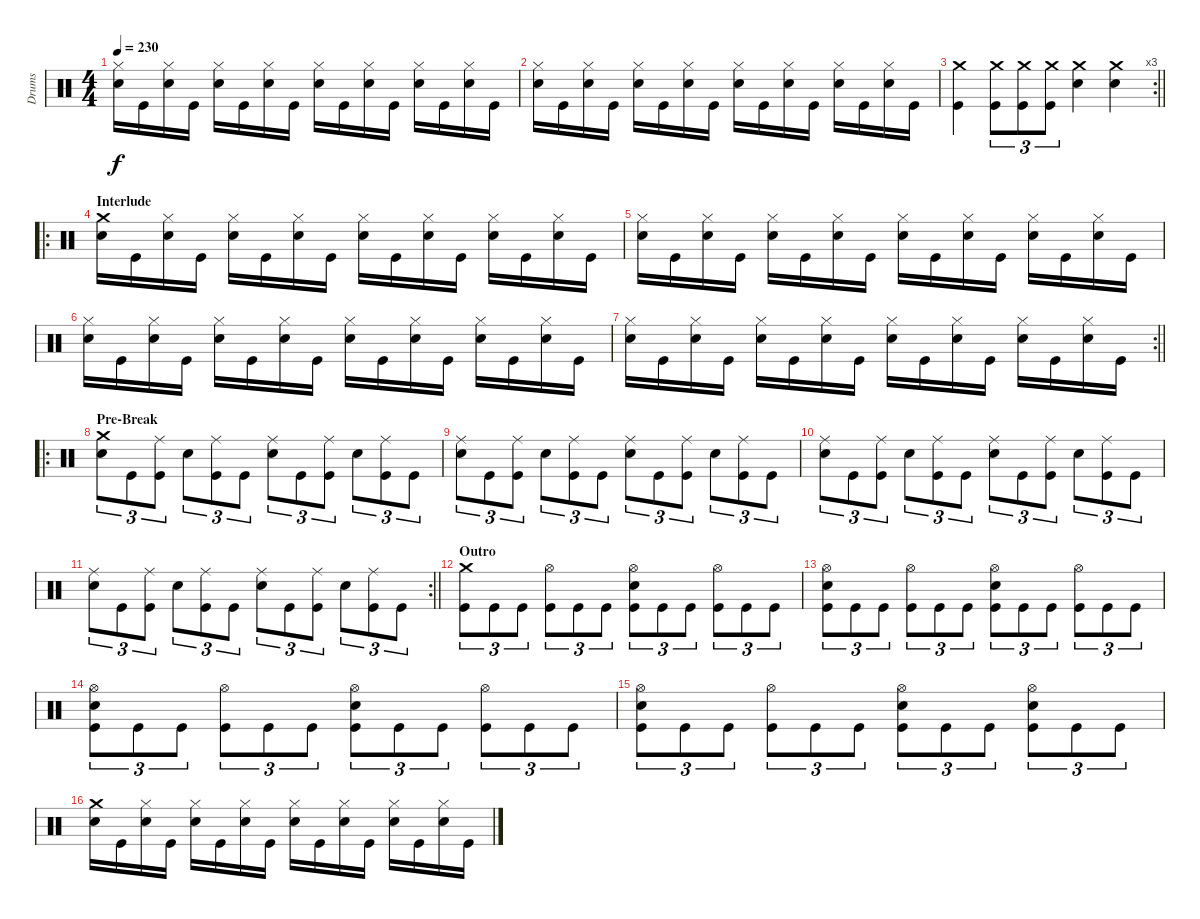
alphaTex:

\track ("Drums" "Drums") {instrument percussion}
\staff {score}
\articulation defaults
\ts (4 4)
\tempo 230
\clef neutral
\ks c
("Hi-Hat (closed)" "Electric Snare (hit)").16{dy f} "Kick (hit)".16 ("Hi-Hat (closed)" "Electric Snare (hit)").16 "Kick (hit)".16 ("Hi-Hat (closed)" "Electric Snare (hit)").16 "Kick (hit)".16 ("Hi-Hat (closed)" "Electric Snare (hit)").16 "Kick (hit)".16 ("Hi-Hat (closed)" "Electric Snare (hit)").16 "Kick (hit)".16 ("Hi-Hat (closed)" "Electric Snare (hit)").16 "Kick (hit)".16 ("Hi-Hat (closed)" "Electric Snare (hit)").16 "Kick (hit)".16 ("Hi-Hat (closed)" "Electric Snare (hit)").16 "Kick (hit)".16 |
("Hi-Hat (closed)" "Electric Snare (hit)").16 "Kick (hit)".16 ("Hi-Hat (closed)" "Electric Snare (hit)").16 "Kick (hit)".16 ("Hi-Hat (closed)" "Electric Snare (hit)").16 "Kick (hit)".16 ("Hi-Hat (closed)" "Electric Snare (hit)").16 "Kick (hit)".16 ("Hi-Hat (closed)" "Electric Snare (hit)").16 "Kick (hit)".16 ("Hi-Hat (closed)" "Electric Snare (hit)").16 "Kick (hit)".16 ("Hi-Hat (closed)" "Electric Snare (hit)").16 "Kick (hit)".16 ("Hi-Hat (closed)" "Electric Snare (hit)").16 "Kick (hit)".16 |
\rc 3
\barLineRight lightlight
("Crash medium (hit)" "Kick (hit)").4 ("Crash medium (hit)" "Kick (hit)").8{tu (3 2)} ("Crash medium (hit)" "Kick (hit)").8{tu (3 2)} ("Crash medium (hit)" "Kick (hit)").8{tu (3 2)} ("Crash medium (hit)" "Electric Snare (hit)").4 ("Crash medium (hit)" "Electric Snare (hit)").4 |
\ro
\section ("" "Interlude")
("Crash medium (hit)" "Electric Snare (hit)").16 "Kick (hit)".16 ("Hi-Hat (closed)" "Electric Snare (hit)").16 "Kick (hit)".16 ("Hi-Hat (closed)" "Electric Snare (hit)").16 "Kick (hit)".16 ("Hi-Hat (closed)" "Electric Snare (hit)").16 "Kick (hit)".16 ("Hi-Hat (closed)" "Electric Snare (hit)").16 "Kick (hit)".16 ("Hi-Hat (closed)" "Electric Snare (hit)").16 "Kick (hit)".16 ("Hi-Hat (closed)" "Electric Snare (hit)").16 "Kick (hit)".16 ("Hi-Hat (closed)" "Electric Snare (hit)").16 "Kick (hit)".16 |
("Hi-Hat (closed)" "Electric Snare (hit)").16 "Kick (hit)".16 ("Hi-Hat (closed)" "Electric Snare (hit)").16 "Kick (hit)".16 ("Hi-Hat (closed)" "Electric Snare (hit)").16 "Kick (hit)".16 ("Hi-Hat (closed)" "Electric Snare (hit)").16 "Kick (hit)".16 ("Hi-Hat (closed)" "Electric Snare (hit)").16 "Kick (hit)".16 ("Hi-Hat (closed)" "Electric Snare (hit)").16 "Kick (hit)".16 ("Hi-Hat (closed)" "Electric Snare (hit)").16 "Kick (hit)".16 ("Hi-Hat (closed)" "Electric Snare (hit)").16 "Kick (hit)".16 |
("Hi-Hat (closed)" "Electric Snare (hit)").16 "Kick (hit)".16 ("Hi-Hat (closed)" "Electric Snare (hit)").16 "Kick (hit)".16 ("Hi-Hat (closed)" "Electric Snare (hit)").16 "Kick (hit)".16 ("Hi-Hat (closed)" "Electric Snare (hit)").16 "Kick (hit)".16 ("Hi-Hat (closed)" "Electric Snare (hit)").16 "Kick (hit)".16 ("Hi-Hat (closed)" "Electric Snare (hit)").16 "Kick (hit)".16 ("Hi-Hat (closed)" "Electric Snare (hit)").16 "Kick (hit)".16 ("Hi-Hat (closed)" "Electric Snare (hit)").16 "Kick (hit)".16 |
\rc 2
\barLineRight lightlight
("Hi-Hat (closed)" "Electric Snare (hit)").16 "Kick (hit)".16 ("Hi-Hat (closed)" "Electric Snare (hit)").16 "Kick (hit)".16 ("Hi-Hat (closed)" "Electric Snare (hit)").16 "Kick (hit)".16 ("Hi-Hat (closed)" "Electric Snare (hit)").16 "Kick (hit)".16 ("Hi-Hat (closed)" "Electric Snare (hit)").16 "Kick (hit)".16 ("Hi-Hat (closed)" "Electric Snare (hit)").16 "Kick (hit)".16 ("Hi-Hat (closed)" "Electric Snare (hit)").16 "Kick (hit)".16 ("Hi-Hat (closed)" "Electric Snare (hit)").16 "Kick (hit)".16 |
\ro
\section ("" "Pre-Break")
("Crash medium (hit)" "Electric Snare (hit)").8{tu (3 2)} "Kick (hit)".8{tu (3 2)} ("Ride (middle)" "Kick (hit)").8{tu (3 2)} "Electric Snare (hit)".8{tu (3 2)} ("Ride (middle)" "Kick (hit)").8{tu (3 2)} "Kick (hit)".8{tu (3 2)} ("Ride (middle)" "Electric Snare (hit)").8{tu (3 2)} "Kick (hit)".8{tu (3 2)} ("Ride (middle)" "Kick (hit)").8{tu (3 2)} "Electric Snare (hit)".8{tu (3 2)} ("Ride (middle)" "Kick (hit)").8{tu (3 2)} "Kick (hit)".8{tu (3 2)} |
("Ride (middle)" "Electric Snare (hit)").8{tu (3 2)} "Kick (hit)".8{tu (3 2)} ("Ride (middle)" "Kick (hit)").8{tu (3 2)} "Electric Snare (hit)".8{tu (3 2)} ("Ride (middle)" "Kick (hit)").8{tu (3 2)} "Kick (hit)".8{tu (3 2)} ("Ride (middle)" "Electric Snare (hit)").8{tu (3 2)} "Kick (hit)".8{tu (3 2)} ("Ride (middle)" "Kick (hit)").8{tu (3 2)} "Electric Snare (hit)".8{tu (3 2)} ("Ride (middle)" "Kick (hit)").8{tu (3 2)} "Kick (hit)".8{tu (3 2)} |
("Ride (middle)" "Electric Snare (hit)").8{tu (3 2)} "Kick (hit)".8{tu (3 2)} ("Ride (middle)" "Kick (hit)").8{tu (3 2)} "Electric Snare (hit)".8{tu (3 2)} ("Ride (middle)" "Kick (hit)").8{tu (3 2)} "Kick (hit)".8{tu (3 2)} ("Ride (middle)" "Electric Snare (hit)").8{tu (3 2)} "Kick (hit)".8{tu (3 2)} ("Ride (middle)" "Kick (hit)").8{tu (3 2)} "Electric Snare (hit)".8{tu (3 2)} ("Ride (middle)" "Kick (hit)").8{tu (3 2)} "Kick (hit)".8{tu (3 2)} |
\rc 2
\barLineRight lightlight
("Ride (middle)" "Electric Snare (hit)").8{tu (3 2)} "Kick (hit)".8{tu (3 2)} ("Ride (middle)" "Kick (hit)").8{tu (3 2)} "Electric Snare (hit)".8{tu (3 2)} ("Ride (middle)" "Kick (hit)").8{tu (3 2)} "Kick (hit)".8{tu (3 2)} ("Ride (middle)" "Electric Snare (hit)").8{tu (3 2)} "Kick (hit)".8{tu (3 2)} ("Ride (middle)" "Kick (hit)").8{tu (3 2)} "Electric Snare (hit)".8{tu (3 2)} ("Ride (middle)" "Kick (hit)").8{tu (3 2)} "Kick (hit)".8{tu (3 2)} |
\section ("" "Outro")
("Crash medium (hit)" "Kick (hit)").8{tu (3 2)} "Kick (hit)".8{tu (3 2)} "Kick (hit)".8{tu (3 2)} ("Hi-Hat (open)" "Kick (hit)").8{tu (3 2)} "Kick (hit)".8{tu (3 2)} "Kick (hit)".8{tu (3 2)} ("Hi-Hat (open)" "Electric Snare (hit)" "Kick (hit)").8{tu (3 2)} "Kick (hit)".8{tu (3 2)} "Kick (hit)".8{tu (3 2)} ("Hi-Hat (open)" "Kick (hit)").8{tu (3 2)} "Kick (hit)".8{tu (3 2)} "Kick (hit)".8{tu (3 2)} |
("Hi-Hat (open)" "Electric Snare (hit)" "Kick (hit)").8{tu (3 2)} "Kick (hit)".8{tu (3 2)} "Kick (hit)".8{tu (3 2)} ("Hi-Hat (open)" "Kick (hit)").8{tu (3 2)} "Kick (hit)".8{tu (3 2)} "Kick (hit)".8{tu (3 2)} ("Hi-Hat (open)" "Electric Snare (hit)" "Kick (hit)").8{tu (3 2)} "Kick (hit)".8{tu (3 2)} "Kick (hit)".8{tu (3 2)} ("Hi-Hat (open)" "Kick (hit)").8{tu (3 2)} "Kick (hit)".8{tu (3 2)} "Kick (hit)".8{tu (3 2)} |
("Hi-Hat (open)" "Electric Snare (hit)" "Kick (hit)").8{tu (3 2)} "Kick (hit)".8{tu (3 2)} "Kick (hit)".8{tu (3 2)} ("Hi-Hat (open)" "Kick (hit)").8{tu (3 2)} "Kick (hit)".8{tu (3 2)} "Kick (hit)".8{tu (3 2)} ("Hi-Hat (open)" "Electric Snare (hit)" "Kick (hit)").8{tu (3 2)} "Kick (hit)".8{tu (3 2)} "Kick (hit)".8{tu (3 2)} ("Hi-Hat (open)" "Kick (hit)").8{tu (3 2)} "Kick (hit)".8{tu (3 2)} "Kick (hit)".8{tu (3 2)} |
("Hi-Hat (open)" "Electric Snare (hit)" "Kick (hit)").8{tu (3 2)} "Kick (hit)".8{tu (3 2)} "Kick (hit)".8{tu (3 2)} ("Hi-Hat (open)" "Kick (hit)").8{tu (3 2)} "Kick (hit)".8{tu (3 2)} "Kick (hit)".8{tu (3 2)} ("Hi-Hat (open)" "Electric Snare (hit)" "Kick (hit)").8{tu (3 2)} "Kick (hit)".8{tu (3 2)} "Kick (hit)".8{tu (3 2)} ("Hi-Hat (open)" "Electric Snare (hit)" "Kick (hit)").8{tu (3 2)} "Kick (hit)".8{tu (3 2)} "Kick (hit)".8{tu (3 2)} |
("Crash medium (hit)" "Electric Snare (hit)").16 "Kick (hit)".16 ("Hi-Hat (closed)" "Electric Snare (hit)").16 "Kick (hit)".16 ("Hi-Hat (closed)" "Electric Snare (hit)").16 "Kick (hit)".16 ("Hi-Hat (closed)" "Electric Snare (hit)").16 "Kick (hit)".16 ("Hi-Hat (closed)" "Electric Snare (hit)").16 "Kick (hit)".16 ("Hi-Hat (closed)" "Electric Snare (hit)").16 "Kick (hit)".16 ("Hi-Hat (closed)" "Electric Snare (hit)").16 "Kick (hit)".16 ("Hi-Hat (closed)" "Electric Snare (hit)").16 "Kick (hit)".16
